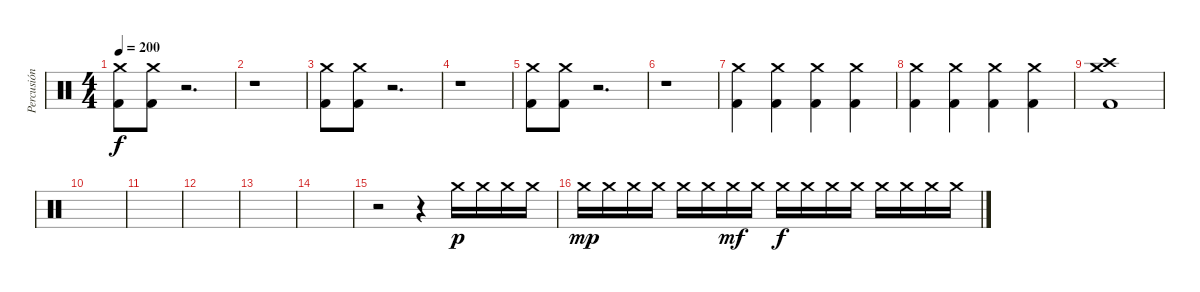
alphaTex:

\track ("Percusión" "Percusión") {instrument percussion}
\staff {score}
\articulation defaults
\ts (4 4)
\tempo 200
\clef neutral
\ks c
("Crash medium (hit)" "Kick (hit) 2").8{dy f} ("Crash medium (hit)" "Kick (hit) 2").8 r.2{d} |
r.1 |
("Crash medium (hit)" "Kick (hit) 2").8 ("Crash medium (hit)" "Kick (hit) 2").8 r.2{d} |
r.1 |
("Crash medium (hit)" "Kick (hit) 2").8 ("Crash medium (hit)" "Kick (hit) 2").8 r.2{d} |
r.1 |
("Crash medium (hit)" "Kick (hit) 2").4 ("Crash medium (hit)" "Kick (hit) 2").4 ("Crash medium (hit)" "Kick (hit) 2").4 ("Crash medium (hit)" "Kick (hit) 2").4 |
("Crash medium (hit)" "Kick (hit) 2").4 ("Crash medium (hit)" "Kick (hit) 2").4 ("Crash medium (hit)" "Kick (hit) 2").4 ("Crash medium (hit)" "Kick (hit) 2").4 |
("Crash high (hit)" "Crash medium (hit)" "Kick (hit) 2").1 |
|
|
|
|
|
r.2 r.4 "Crash medium (hit)".16{dy p} "Crash medium (hit)".16 "Crash medium (hit)".16 "Crash medium (hit)".16 |
"Crash medium (hit)".16{dy mp} "Crash medium (hit)".16 "Crash medium (hit)".16 "Crash medium (hit)".16 "Crash medium (hit)".16 "Crash medium (hit)".16 "Crash medium (hit)".16{dy mf} "Crash medium (hit)".16 "Crash medium (hit)".16{dy f} "Crash medium (hit)".16 "Crash medium (hit)".16 "Crash medium (hit)".16 "Crash medium (hit)".16 "Crash medium (hit)".16 "Crash medium (hit)".16 "Crash medium (hit)".16
